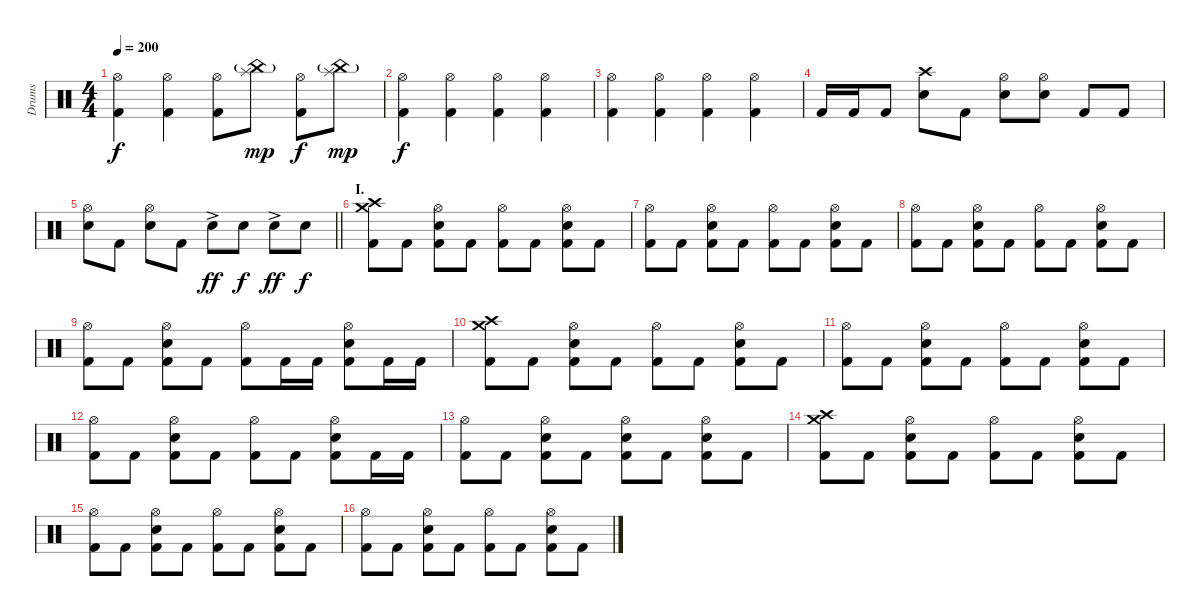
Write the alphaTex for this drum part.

\track ("Drums" "Drums") {instrument percussion}
\staff {score}
\articulation defaults
\ts (4 4)
\tempo 200
\clef neutral
\ks c
("Hi-Hat (open)" "Kick (hit) 2").4{dy f} ("Hi-Hat (open)" "Kick (hit) 2").4 ("Hi-Hat (open)" "Kick (hit) 2").8 ("China (hit)"{g} "Splash (hit)").8{dy mp} ("Hi-Hat (open)" "Kick (hit) 2").8{dy f} ("China (hit)"{g} "Splash (hit)").8{dy mp} |
("Hi-Hat (open)" "Kick (hit) 2").4{dy f} ("Hi-Hat (open)" "Kick (hit) 2").4 ("Hi-Hat (open)" "Kick (hit) 2").4 ("Hi-Hat (open)" "Kick (hit) 2").4 |
("Hi-Hat (open)" "Kick (hit) 2").4 ("Hi-Hat (open)" "Kick (hit) 2").4 ("Hi-Hat (open)" "Kick (hit) 2").4 ("Hi-Hat (open)" "Kick (hit) 2").4 |
"Kick (hit) 2".16 "Kick (hit) 2".16 "Kick (hit) 2".8 ("Crash high (hit)" "Electric Snare (hit)").8 "Kick (hit) 2".8 ("Hi-Hat (open)" "Electric Snare (hit)").8 ("Hi-Hat (open)" "Electric Snare (hit)").8 "Kick (hit) 2".8 "Kick (hit) 2".8 |
\barLineRight lightlight
("Hi-Hat (open)" "Electric Snare (hit)").8 "Kick (hit) 2".8 ("Hi-Hat (open)" "Electric Snare (hit)").8 "Kick (hit) 2".8 "Electric Snare (hit)"{ac}.8{dy ff} "Electric Snare (hit)".8{dy f} "Electric Snare (hit)"{ac}.8{dy ff} "Electric Snare (hit)".8{dy f} |
\section ("" "I.")
("Crash medium (hit)" "Crash high (hit)" "Kick (hit) 2").8 "Kick (hit) 2".8 ("Hi-Hat (open)" "Electric Snare (hit)" "Kick (hit) 2").8 "Kick (hit) 2".8 ("Hi-Hat (open)" "Kick (hit) 2").8 "Kick (hit) 2".8 ("Hi-Hat (open)" "Electric Snare (hit)" "Kick (hit) 2").8 "Kick (hit) 2".8 |
("Hi-Hat (open)" "Kick (hit) 2").8 "Kick (hit) 2".8 ("Hi-Hat (open)" "Electric Snare (hit)" "Kick (hit) 2").8 "Kick (hit) 2".8 ("Hi-Hat (open)" "Kick (hit) 2").8 "Kick (hit) 2".8 ("Hi-Hat (open)" "Electric Snare (hit)" "Kick (hit) 2").8 "Kick (hit) 2".8 |
("Hi-Hat (open)" "Kick (hit) 2").8 "Kick (hit) 2".8 ("Hi-Hat (open)" "Electric Snare (hit)" "Kick (hit) 2").8 "Kick (hit) 2".8 ("Hi-Hat (open)" "Kick (hit) 2").8 "Kick (hit) 2".8 ("Hi-Hat (open)" "Electric Snare (hit)" "Kick (hit) 2").8 "Kick (hit) 2".8 |
("Hi-Hat (open)" "Kick (hit) 2").8 "Kick (hit) 2".8 ("Hi-Hat (open)" "Electric Snare (hit)" "Kick (hit) 2").8 "Kick (hit) 2".8 ("Hi-Hat (open)" "Kick (hit) 2").8 "Kick (hit) 2".16 "Kick (hit) 2".16 ("Hi-Hat (open)" "Electric Snare (hit)" "Kick (hit) 2").8 "Kick (hit) 2".16 "Kick (hit) 2".16 |
("Crash medium (hit)" "Crash high (hit)" "Kick (hit) 2").8 "Kick (hit) 2".8 ("Hi-Hat (open)" "Electric Snare (hit)" "Kick (hit) 2").8 "Kick (hit) 2".8 ("Hi-Hat (open)" "Kick (hit) 2").8 "Kick (hit) 2".8 ("Hi-Hat (open)" "Electric Snare (hit)" "Kick (hit) 2").8 "Kick (hit) 2".8 |
("Hi-Hat (open)" "Kick (hit) 2").8 "Kick (hit) 2".8 ("Hi-Hat (open)" "Electric Snare (hit)" "Kick (hit) 2").8 "Kick (hit) 2".8 ("Hi-Hat (open)" "Kick (hit) 2").8 "Kick (hit) 2".8 ("Hi-Hat (open)" "Electric Snare (hit)" "Kick (hit) 2").8 "Kick (hit) 2".8 |
("Hi-Hat (open)" "Kick (hit) 2").8 "Kick (hit) 2".8 ("Hi-Hat (open)" "Electric Snare (hit)" "Kick (hit) 2").8 "Kick (hit) 2".8 ("Hi-Hat (open)" "Kick (hit) 2").8 "Kick (hit) 2".8 ("Hi-Hat (open)" "Electric Snare (hit)" "Kick (hit) 2").8 "Kick (hit) 2".16 "Kick (hit) 2".16 |
("Hi-Hat (open)" "Kick (hit) 2").8 "Kick (hit) 2".8 ("Hi-Hat (open)" "Electric Snare (hit)" "Kick (hit) 2").8 "Kick (hit) 2".8 ("Hi-Hat (open)" "Electric Snare (hit)" "Kick (hit) 2").8 "Kick (hit) 2".8 ("Hi-Hat (open)" "Electric Snare (hit)" "Kick (hit) 2").8 "Kick (hit) 2".8 |
("Crash medium (hit)" "Crash high (hit)" "Kick (hit) 2").8 "Kick (hit) 2".8 ("Hi-Hat (open)" "Electric Snare (hit)" "Kick (hit) 2").8 "Kick (hit) 2".8 ("Hi-Hat (open)" "Kick (hit) 2").8 "Kick (hit) 2".8 ("Hi-Hat (open)" "Electric Snare (hit)" "Kick (hit) 2").8 "Kick (hit) 2".8 |
("Hi-Hat (open)" "Kick (hit) 2").8 "Kick (hit) 2".8 ("Hi-Hat (open)" "Electric Snare (hit)" "Kick (hit) 2").8 "Kick (hit) 2".8 ("Hi-Hat (open)" "Kick (hit) 2").8 "Kick (hit) 2".8 ("Hi-Hat (open)" "Electric Snare (hit)" "Kick (hit) 2").8 "Kick (hit) 2".8 |
("Hi-Hat (open)" "Kick (hit) 2").8 "Kick (hit) 2".8 ("Hi-Hat (open)" "Electric Snare (hit)" "Kick (hit) 2").8 "Kick (hit) 2".8 ("Hi-Hat (open)" "Kick (hit) 2").8 "Kick (hit) 2".8 ("Hi-Hat (open)" "Electric Snare (hit)" "Kick (hit) 2").8 "Kick (hit) 2".8
